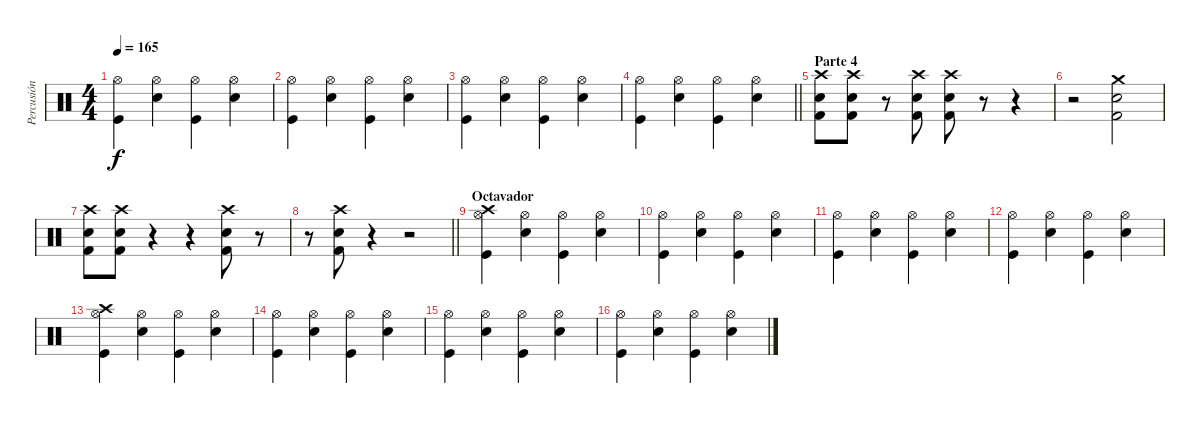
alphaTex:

\track ("Percusión" "Percusión") {instrument percussion}
\staff {score}
\articulation defaults
\ts (4 4)
\tempo 165
\clef neutral
\ks c
("Hi-Hat (open)" "Kick (hit)").4{dy f} ("Hi-Hat (open)" "Snare (hit) 2").4 ("Hi-Hat (open)" "Kick (hit)").4 ("Hi-Hat (open)" "Snare (hit) 2").4 |
("Hi-Hat (open)" "Kick (hit)").4 ("Hi-Hat (open)" "Snare (hit) 2").4 ("Hi-Hat (open)" "Kick (hit)").4 ("Hi-Hat (open)" "Snare (hit) 2").4 |
("Hi-Hat (open)" "Kick (hit)").4 ("Hi-Hat (open)" "Snare (hit) 2").4 ("Hi-Hat (open)" "Kick (hit)").4 ("Hi-Hat (open)" "Snare (hit) 2").4 |
\barLineRight lightlight
("Hi-Hat (open)" "Kick (hit)").4 ("Hi-Hat (open)" "Snare (hit) 2").4 ("Hi-Hat (open)" "Kick (hit)").4 ("Hi-Hat (open)" "Snare (hit) 2").4 |
\section ("" "Parte 4")
("Crash high (hit)" "Electric Snare (hit)" "Kick (hit) 2").8 ("Crash high (hit)" "Electric Snare (hit)" "Kick (hit) 2").8 r.8 ("Crash high (hit)" "Electric Snare (hit)" "Kick (hit) 2").8 ("Crash high (hit)" "Electric Snare (hit)" "Kick (hit) 2").8 r.8 r.4 |
r.2 ("Crash medium (hit)" "Electric Snare (hit)" "Kick (hit) 2").2 |
("Crash high (hit)" "Electric Snare (hit)" "Kick (hit) 2").8 ("Crash high (hit)" "Electric Snare (hit)" "Kick (hit) 2").8 r.4 r.4 ("Crash high (hit)" "Electric Snare (hit)" "Kick (hit) 2").8 r.8 |
\barLineRight lightlight
r.8 ("Crash high (hit)" "Electric Snare (hit)" "Kick (hit) 2").8 r.4 r.2 |
\section ("" "Octavador")
("Hi-Hat (open)" "Kick (hit)" "Crash high (hit)").4 ("Hi-Hat (open)" "Snare (hit) 2").4 ("Hi-Hat (open)" "Kick (hit)").4 ("Hi-Hat (open)" "Snare (hit) 2").4 |
("Hi-Hat (open)" "Kick (hit)").4 ("Hi-Hat (open)" "Snare (hit) 2").4 ("Hi-Hat (open)" "Kick (hit)").4 ("Hi-Hat (open)" "Snare (hit) 2").4 |
("Hi-Hat (open)" "Kick (hit)").4 ("Hi-Hat (open)" "Snare (hit) 2").4 ("Hi-Hat (open)" "Kick (hit)").4 ("Hi-Hat (open)" "Snare (hit) 2").4 |
("Hi-Hat (open)" "Kick (hit)").4 ("Hi-Hat (open)" "Snare (hit) 2").4 ("Hi-Hat (open)" "Kick (hit)").4 ("Hi-Hat (open)" "Snare (hit) 2").4 |
("Hi-Hat (open)" "Kick (hit)" "Crash high (hit)").4 ("Hi-Hat (open)" "Snare (hit) 2").4 ("Hi-Hat (open)" "Kick (hit)").4 ("Hi-Hat (open)" "Snare (hit) 2").4 |
("Hi-Hat (open)" "Kick (hit)").4 ("Hi-Hat (open)" "Snare (hit) 2").4 ("Hi-Hat (open)" "Kick (hit)").4 ("Hi-Hat (open)" "Snare (hit) 2").4 |
("Hi-Hat (open)" "Kick (hit)").4 ("Hi-Hat (open)" "Snare (hit) 2").4 ("Hi-Hat (open)" "Kick (hit)").4 ("Hi-Hat (open)" "Snare (hit) 2").4 |
("Hi-Hat (open)" "Kick (hit)").4 ("Hi-Hat (open)" "Snare (hit) 2").4 ("Hi-Hat (open)" "Kick (hit)").4 ("Hi-Hat (open)" "Snare (hit) 2").4
